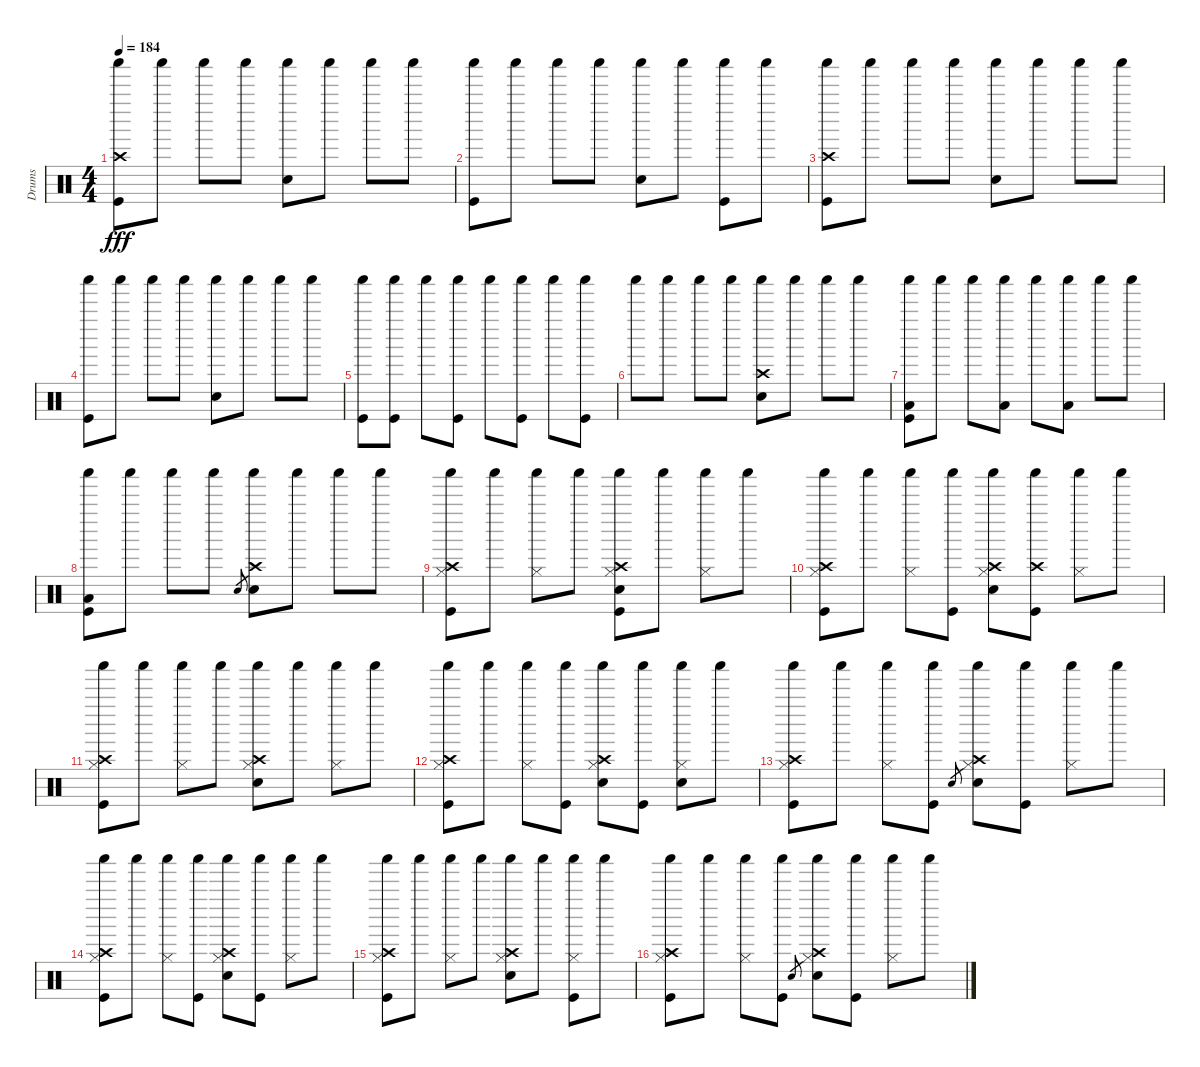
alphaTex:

\track ("Drums" "Drums") {instrument percussion}
\staff {score}
\articulation defaults
\ts (4 4)
\tempo 184
\clef neutral
\ks c
("Shaker (hit)" "Crash high (hit)" "Kick (hit)").8{dy fff} "Shaker (hit)".8 "Shaker (hit)".8 "Shaker (hit)".8 ("Shaker (hit)" "Snare (hit) 2").8 "Shaker (hit)".8 "Shaker (hit)".8 "Shaker (hit)".8 |
("Shaker (hit)" "Kick (hit)").8 "Shaker (hit)".8 "Shaker (hit)".8 "Shaker (hit)".8 ("Shaker (hit)" "Snare (hit) 2").8 "Shaker (hit)".8 ("Shaker (hit)" "Kick (hit)").8 "Shaker (hit)".8 |
("Shaker (hit)" "Crash high (hit)" "Kick (hit)").8 "Shaker (hit)".8 "Shaker (hit)".8 "Shaker (hit)".8 ("Shaker (hit)" "Snare (hit) 2").8 "Shaker (hit)".8 "Shaker (hit)".8 "Shaker (hit)".8 |
("Shaker (hit)" "Kick (hit)").8 "Shaker (hit)".8 "Shaker (hit)".8 "Shaker (hit)".8 ("Shaker (hit)" "Snare (hit) 2").8 "Shaker (hit)".8 "Shaker (hit)".8 "Shaker (hit)".8 |
("Shaker (hit)" "Kick (hit)").8 ("Shaker (hit)" "Kick (hit)").8 "Shaker (hit)".8 ("Shaker (hit)" "Kick (hit)").8 "Shaker (hit)".8 ("Shaker (hit)" "Kick (hit)").8 "Shaker (hit)".8 ("Shaker (hit)" "Kick (hit)").8 |
"Shaker (hit)".8 "Shaker (hit)".8 "Shaker (hit)".8 "Shaker (hit)".8 ("Shaker (hit)" "Crash high (hit)" "Snare (hit) 2").8 "Shaker (hit)".8 "Shaker (hit)".8 "Shaker (hit)".8 |
("Shaker (hit)" "Low Floor Tom (hit)" "Kick (hit)").8 "Shaker (hit)".8 "Shaker (hit)".8 ("Shaker (hit)" "Low Floor Tom (hit)").8 "Shaker (hit)".8 ("Shaker (hit)" "Low Floor Tom (hit)").8 "Shaker (hit)".8 "Shaker (hit)".8 |
("Shaker (hit)" "Low Floor Tom (hit)" "Kick (hit)").8 "Shaker (hit)".8 "Shaker (hit)".8 "Shaker (hit)".8 "Snare (hit) 2".8{gr} ("Shaker (hit)" "Crash high (hit)" "Snare (hit) 2").8 "Shaker (hit)".8 "Shaker (hit)".8 "Shaker (hit)".8 |
("Hi-Hat (closed)" "Shaker (hit)" "Crash high (hit)" "Kick (hit)").8 "Shaker (hit)".8 ("Hi-Hat (closed)" "Shaker (hit)").8 "Shaker (hit)".8 ("Hi-Hat (closed)" "Shaker (hit)" "Crash high (hit)" "Snare (hit) 2" "Kick (hit)").8 "Shaker (hit)".8 ("Hi-Hat (closed)" "Shaker (hit)").8 "Shaker (hit)".8 |
("Hi-Hat (closed)" "Shaker (hit)" "Crash high (hit)" "Kick (hit)").8 "Shaker (hit)".8 ("Hi-Hat (closed)" "Shaker (hit)").8 ("Shaker (hit)" "Kick (hit)").8 ("Hi-Hat (closed)" "Shaker (hit)" "Crash high (hit)" "Snare (hit) 2").8 ("Shaker (hit)" "Crash high (hit)" "Kick (hit)").8 ("Hi-Hat (closed)" "Shaker (hit)").8 "Shaker (hit)".8 |
("Hi-Hat (closed)" "Shaker (hit)" "Crash high (hit)" "Kick (hit)").8 "Shaker (hit)".8 ("Hi-Hat (closed)" "Shaker (hit)").8 "Shaker (hit)".8 ("Hi-Hat (closed)" "Shaker (hit)" "Crash high (hit)" "Snare (hit) 2").8 "Shaker (hit)".8 ("Hi-Hat (closed)" "Shaker (hit)").8 "Shaker (hit)".8 |
("Hi-Hat (closed)" "Shaker (hit)" "Crash high (hit)" "Kick (hit)").8 "Shaker (hit)".8 ("Hi-Hat (closed)" "Shaker (hit)").8 ("Shaker (hit)" "Kick (hit)").8 ("Hi-Hat (closed)" "Shaker (hit)" "Crash high (hit)" "Snare (hit) 2").8 ("Shaker (hit)" "Kick (hit)").8 ("Hi-Hat (closed)" "Shaker (hit)" "Snare (hit) 2").8 "Shaker (hit)".8 |
("Hi-Hat (closed)" "Shaker (hit)" "Crash high (hit)" "Kick (hit)").8 "Shaker (hit)".8 ("Hi-Hat (closed)" "Shaker (hit)").8 ("Shaker (hit)" "Kick (hit)").8 "Snare (hit) 2".8{gr} ("Hi-Hat (closed)" "Shaker (hit)" "Crash high (hit)" "Snare (hit) 2").8 ("Shaker (hit)" "Kick (hit)").8 ("Hi-Hat (closed)" "Shaker (hit)").8 "Shaker (hit)".8 |
("Hi-Hat (closed)" "Shaker (hit)" "Crash high (hit)" "Kick (hit)").8 "Shaker (hit)".8 ("Hi-Hat (closed)" "Shaker (hit)").8 ("Shaker (hit)" "Kick (hit)").8 ("Hi-Hat (closed)" "Shaker (hit)" "Crash high (hit)" "Snare (hit) 2").8 ("Shaker (hit)" "Kick (hit)").8 ("Hi-Hat (closed)" "Shaker (hit)").8 "Shaker (hit)".8 |
("Hi-Hat (closed)" "Shaker (hit)" "Crash high (hit)" "Kick (hit)").8 "Shaker (hit)".8 ("Hi-Hat (closed)" "Shaker (hit)").8 "Shaker (hit)".8 ("Hi-Hat (closed)" "Shaker (hit)" "Crash high (hit)" "Snare (hit) 2").8 "Shaker (hit)".8 ("Hi-Hat (closed)" "Shaker (hit)" "Kick (hit)").8 "Shaker (hit)".8 |
("Hi-Hat (closed)" "Shaker (hit)" "Crash high (hit)" "Kick (hit)").8 "Shaker (hit)".8 ("Hi-Hat (closed)" "Shaker (hit)").8 ("Shaker (hit)" "Kick (hit)").8 "Snare (hit) 2".8{gr} ("Hi-Hat (closed)" "Shaker (hit)" "Crash high (hit)" "Snare (hit) 2").8 ("Shaker (hit)" "Kick (hit)").8 ("Hi-Hat (closed)" "Shaker (hit)").8 "Shaker (hit)".8
